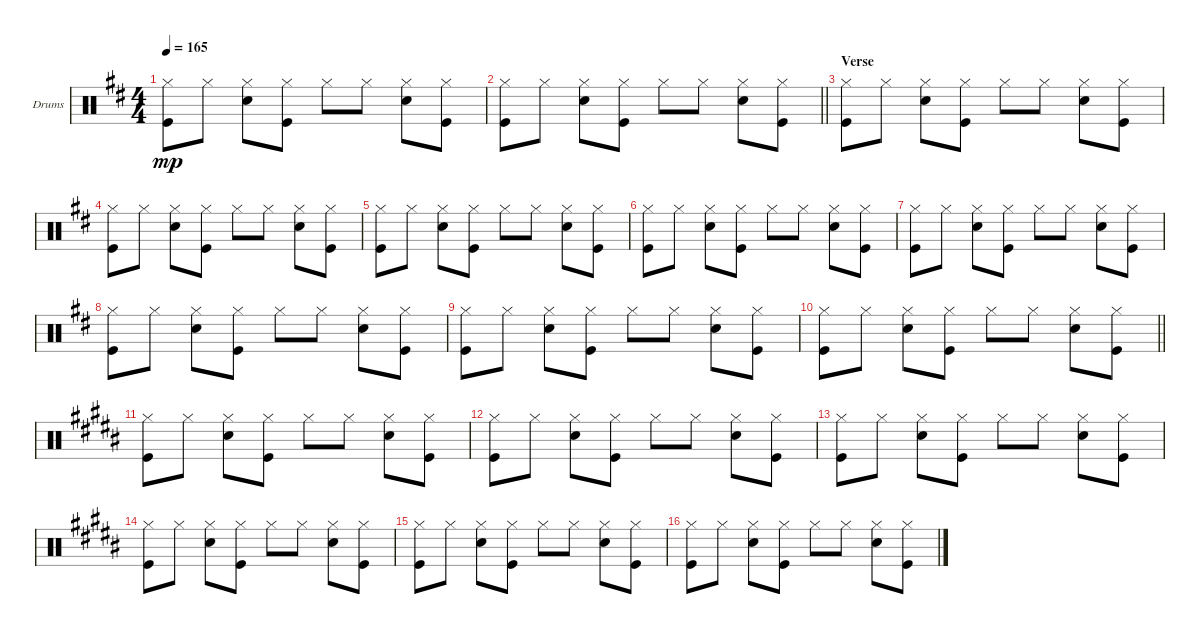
\defaultSystemsLayout 4
\bracketExtendMode groupsimilarinstruments
\firstSystemTrackNameOrientation horizontal
\otherSystemsTrackNameOrientation horizontal
\track ("Drumkit" "Drums") {instrument percussion}
\staff {score}
\articulation defaults
\ts (4 4)
\tempo 165
\clef neutral
\scale
0.51073
\ks d
("Hi-Hat (closed)" "Kick (hit)").8{dy mp} "Hi-Hat (closed)".8 ("Hi-Hat (closed)" "Snare (hit) 2").8 ("Hi-Hat (closed)" "Kick (hit)").8 "Hi-Hat (closed)".8 "Hi-Hat (closed)".8 ("Hi-Hat (closed)" "Snare (hit) 2").8 ("Hi-Hat (closed)" "Kick (hit)").8 |
\scale
0.244635
\barLineRight lightlight
("Hi-Hat (closed)" "Kick (hit)").8 "Hi-Hat (closed)".8 ("Hi-Hat (closed)" "Snare (hit) 2").8 ("Hi-Hat (closed)" "Kick (hit)").8 "Hi-Hat (closed)".8 "Hi-Hat (closed)".8 ("Hi-Hat (closed)" "Snare (hit) 2").8 ("Hi-Hat (closed)" "Kick (hit)").8 |
\section ("" "Verse")
\scale
0.244635 ("Hi-Hat (closed)" "Kick (hit)").8 "Hi-Hat (closed)".8 ("Hi-Hat (closed)" "Snare (hit) 2").8 ("Hi-Hat (closed)" "Kick (hit)").8 "Hi-Hat (closed)".8 "Hi-Hat (closed)".8 ("Hi-Hat (closed)" "Snare (hit) 2").8 ("Hi-Hat (closed)" "Kick (hit)").8 |
\scale
0.333333 ("Hi-Hat (closed)" "Kick (hit)").8 "Hi-Hat (closed)".8 ("Hi-Hat (closed)" "Snare (hit) 2").8 ("Hi-Hat (closed)" "Kick (hit)").8 "Hi-Hat (closed)".8 "Hi-Hat (closed)".8 ("Hi-Hat (closed)" "Snare (hit) 2").8 ("Hi-Hat (closed)" "Kick (hit)").8 |
\scale
0.333333 ("Hi-Hat (closed)" "Kick (hit)").8 "Hi-Hat (closed)".8 ("Hi-Hat (closed)" "Snare (hit) 2").8 ("Hi-Hat (closed)" "Kick (hit)").8 "Hi-Hat (closed)".8 "Hi-Hat (closed)".8 ("Hi-Hat (closed)" "Snare (hit) 2").8 ("Hi-Hat (closed)" "Kick (hit)").8 |
\scale
0.333333 ("Hi-Hat (closed)" "Kick (hit)").8 "Hi-Hat (closed)".8 ("Hi-Hat (closed)" "Snare (hit) 2").8 ("Hi-Hat (closed)" "Kick (hit)").8 "Hi-Hat (closed)".8 "Hi-Hat (closed)".8 ("Hi-Hat (closed)" "Snare (hit) 2").8 ("Hi-Hat (closed)" "Kick (hit)").8 |
\scale
0.333333 ("Hi-Hat (closed)" "Kick (hit)").8 "Hi-Hat (closed)".8 ("Hi-Hat (closed)" "Snare (hit) 2").8 ("Hi-Hat (closed)" "Kick (hit)").8 "Hi-Hat (closed)".8 "Hi-Hat (closed)".8 ("Hi-Hat (closed)" "Snare (hit) 2").8 ("Hi-Hat (closed)" "Kick (hit)").8 |
\scale
0.333333 ("Hi-Hat (closed)" "Kick (hit)").8 "Hi-Hat (closed)".8 ("Hi-Hat (closed)" "Snare (hit) 2").8 ("Hi-Hat (closed)" "Kick (hit)").8 "Hi-Hat (closed)".8 "Hi-Hat (closed)".8 ("Hi-Hat (closed)" "Snare (hit) 2").8 ("Hi-Hat (closed)" "Kick (hit)").8 |
\scale
0.333333 ("Hi-Hat (closed)" "Kick (hit)").8 "Hi-Hat (closed)".8 ("Hi-Hat (closed)" "Snare (hit) 2").8 ("Hi-Hat (closed)" "Kick (hit)").8 "Hi-Hat (closed)".8 "Hi-Hat (closed)".8 ("Hi-Hat (closed)" "Snare (hit) 2").8 ("Hi-Hat (closed)" "Kick (hit)").8 |
\scale
0.242553
\barLineRight lightlight
("Hi-Hat (closed)" "Kick (hit)").8 "Hi-Hat (closed)".8 ("Hi-Hat (closed)" "Snare (hit) 2").8 ("Hi-Hat (closed)" "Kick (hit)").8 "Hi-Hat (closed)".8 "Hi-Hat (closed)".8 ("Hi-Hat (closed)" "Snare (hit) 2").8 ("Hi-Hat (closed)" "Kick (hit)").8 |
\scale
0.514894
\ks b
("Hi-Hat (closed)" "Kick (hit)").8 "Hi-Hat (closed)".8 ("Hi-Hat (closed)" "Snare (hit) 2").8 ("Hi-Hat (closed)" "Kick (hit)").8 "Hi-Hat (closed)".8 "Hi-Hat (closed)".8 ("Hi-Hat (closed)" "Snare (hit) 2").8 ("Hi-Hat (closed)" "Kick (hit)").8 |
\scale
0.242553 ("Hi-Hat (closed)" "Kick (hit)").8 "Hi-Hat (closed)".8 ("Hi-Hat (closed)" "Snare (hit) 2").8 ("Hi-Hat (closed)" "Kick (hit)").8 "Hi-Hat (closed)".8 "Hi-Hat (closed)".8 ("Hi-Hat (closed)" "Snare (hit) 2").8 ("Hi-Hat (closed)" "Kick (hit)").8 |
\scale
0.333333 ("Hi-Hat (closed)" "Kick (hit)").8 "Hi-Hat (closed)".8 ("Hi-Hat (closed)" "Snare (hit) 2").8 ("Hi-Hat (closed)" "Kick (hit)").8 "Hi-Hat (closed)".8 "Hi-Hat (closed)".8 ("Hi-Hat (closed)" "Snare (hit) 2").8 ("Hi-Hat (closed)" "Kick (hit)").8 |
\scale
0.333333 ("Hi-Hat (closed)" "Kick (hit)").8 "Hi-Hat (closed)".8 ("Hi-Hat (closed)" "Snare (hit) 2").8 ("Hi-Hat (closed)" "Kick (hit)").8 "Hi-Hat (closed)".8 "Hi-Hat (closed)".8 ("Hi-Hat (closed)" "Snare (hit) 2").8 ("Hi-Hat (closed)" "Kick (hit)").8 |
\scale
0.333333 ("Hi-Hat (closed)" "Kick (hit)").8 "Hi-Hat (closed)".8 ("Hi-Hat (closed)" "Snare (hit) 2").8 ("Hi-Hat (closed)" "Kick (hit)").8 "Hi-Hat (closed)".8 "Hi-Hat (closed)".8 ("Hi-Hat (closed)" "Snare (hit) 2").8 ("Hi-Hat (closed)" "Kick (hit)").8 |
\scale
0.333333 ("Hi-Hat (closed)" "Kick (hit)").8 "Hi-Hat (closed)".8 ("Hi-Hat (closed)" "Snare (hit) 2").8 ("Hi-Hat (closed)" "Kick (hit)").8 "Hi-Hat (closed)".8 "Hi-Hat (closed)".8 ("Hi-Hat (closed)" "Snare (hit) 2").8 ("Hi-Hat (closed)" "Kick (hit)").8
